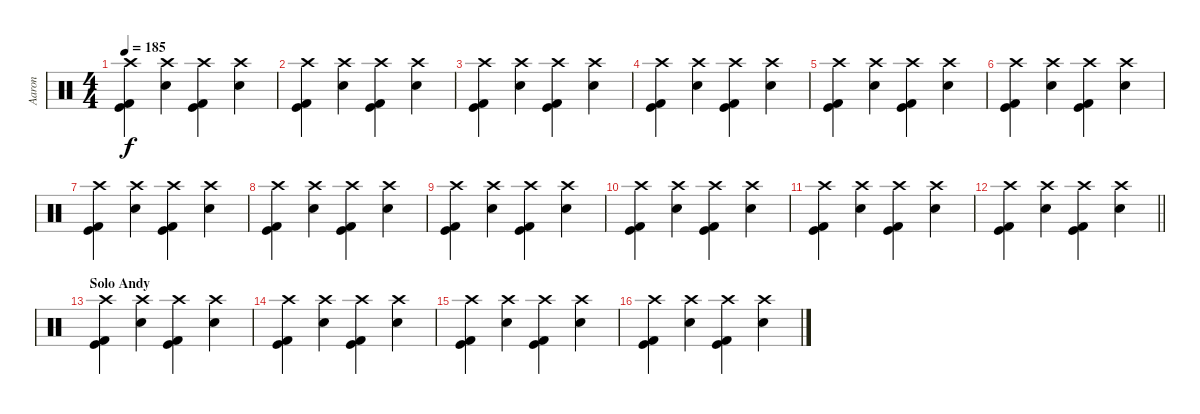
\track ("Aaron" "Aaron") {instrument percussion}
\staff {score}
\articulation defaults
\ts (4 4)
\tempo 185
\clef neutral
\ks c
("Crash high (hit)" "Kick (hit)" "Kick (hit) 2").4{dy f} ("Crash high (hit)" "Snare (hit) 2").4 ("Crash high (hit)" "Kick (hit)" "Kick (hit) 2").4 ("Crash high (hit)" "Snare (hit) 2").4 |
("Crash high (hit)" "Kick (hit)" "Kick (hit) 2").4 ("Crash high (hit)" "Snare (hit) 2").4 ("Crash high (hit)" "Kick (hit)" "Kick (hit) 2").4 ("Crash high (hit)" "Snare (hit) 2").4 |
("Crash high (hit)" "Kick (hit)" "Kick (hit) 2").4 ("Crash high (hit)" "Snare (hit) 2").4 ("Crash high (hit)" "Kick (hit)" "Kick (hit) 2").4 ("Crash high (hit)" "Snare (hit) 2").4 |
("Crash high (hit)" "Kick (hit)" "Kick (hit) 2").4 ("Crash high (hit)" "Snare (hit) 2").4 ("Crash high (hit)" "Kick (hit)" "Kick (hit) 2").4 ("Crash high (hit)" "Snare (hit) 2").4 |
("Crash high (hit)" "Kick (hit)" "Kick (hit) 2").4 ("Crash high (hit)" "Snare (hit) 2").4 ("Crash high (hit)" "Kick (hit)" "Kick (hit) 2").4 ("Crash high (hit)" "Snare (hit) 2").4 |
("Crash high (hit)" "Kick (hit)" "Kick (hit) 2").4 ("Crash high (hit)" "Snare (hit) 2").4 ("Crash high (hit)" "Kick (hit)" "Kick (hit) 2").4 ("Crash high (hit)" "Snare (hit) 2").4 |
("Crash high (hit)" "Kick (hit)" "Kick (hit) 2").4 ("Crash high (hit)" "Snare (hit) 2").4 ("Crash high (hit)" "Kick (hit)" "Kick (hit) 2").4 ("Crash high (hit)" "Snare (hit) 2").4 |
("Crash high (hit)" "Kick (hit)" "Kick (hit) 2").4 ("Crash high (hit)" "Snare (hit) 2").4 ("Crash high (hit)" "Kick (hit)" "Kick (hit) 2").4 ("Crash high (hit)" "Snare (hit) 2").4 |
("Crash high (hit)" "Kick (hit)" "Kick (hit) 2").4 ("Crash high (hit)" "Snare (hit) 2").4 ("Crash high (hit)" "Kick (hit)" "Kick (hit) 2").4 ("Crash high (hit)" "Snare (hit) 2").4 |
("Crash high (hit)" "Kick (hit)" "Kick (hit) 2").4 ("Crash high (hit)" "Snare (hit) 2").4 ("Crash high (hit)" "Kick (hit)" "Kick (hit) 2").4 ("Crash high (hit)" "Snare (hit) 2").4 |
("Crash high (hit)" "Kick (hit)" "Kick (hit) 2").4 ("Crash high (hit)" "Snare (hit) 2").4 ("Crash high (hit)" "Kick (hit)" "Kick (hit) 2").4 ("Crash high (hit)" "Snare (hit) 2").4 |
\barLineRight lightlight
("Crash high (hit)" "Kick (hit)" "Kick (hit) 2").4 ("Crash high (hit)" "Snare (hit) 2").4 ("Crash high (hit)" "Kick (hit)" "Kick (hit) 2").4 ("Crash high (hit)" "Snare (hit) 2").4 |
\section ("" "Solo Andy")
("Crash high (hit)" "Kick (hit)" "Kick (hit) 2").4 ("Crash high (hit)" "Snare (hit) 2").4 ("Crash high (hit)" "Kick (hit)" "Kick (hit) 2").4 ("Crash high (hit)" "Snare (hit) 2").4 |
("Crash high (hit)" "Kick (hit)" "Kick (hit) 2").4 ("Crash high (hit)" "Snare (hit) 2").4 ("Crash high (hit)" "Kick (hit)" "Kick (hit) 2").4 ("Crash high (hit)" "Snare (hit) 2").4 |
("Crash high (hit)" "Kick (hit)" "Kick (hit) 2").4 ("Crash high (hit)" "Snare (hit) 2").4 ("Crash high (hit)" "Kick (hit)" "Kick (hit) 2").4 ("Crash high (hit)" "Snare (hit) 2").4 |
("Crash high (hit)" "Kick (hit)" "Kick (hit) 2").4 ("Crash high (hit)" "Snare (hit) 2").4 ("Crash high (hit)" "Kick (hit)" "Kick (hit) 2").4 ("Crash high (hit)" "Snare (hit) 2").4
